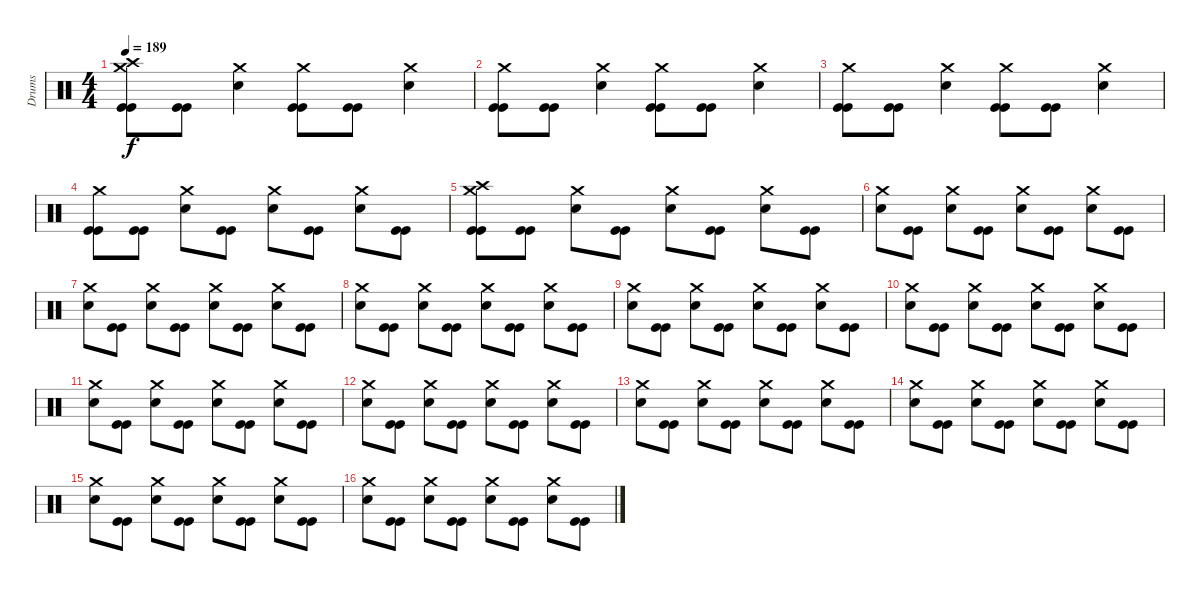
\track ("Drums" "Drums") {instrument percussion}
\staff {score}
\articulation defaults
\ts (4 4)
\tempo 189
\clef neutral
\ks c
("Crash high (hit)" "Crash medium (hit)" "Kick (hit)" "Kick (hit)").8{dy f} ("Kick (hit)" "Kick (hit)").8 ("Crash medium (hit)" "Electric Snare (hit)").4 ("Crash medium (hit)" "Kick (hit)" "Kick (hit)").8 ("Kick (hit)" "Kick (hit)").8 ("Crash medium (hit)" "Electric Snare (hit)").4 |
("Crash medium (hit)" "Kick (hit)" "Kick (hit)").8 ("Kick (hit)" "Kick (hit)").8 ("Crash medium (hit)" "Electric Snare (hit)").4 ("Crash medium (hit)" "Kick (hit)" "Kick (hit)").8 ("Kick (hit)" "Kick (hit)").8 ("Crash medium (hit)" "Electric Snare (hit)").4 |
("Crash medium (hit)" "Kick (hit)" "Kick (hit)").8 ("Kick (hit)" "Kick (hit)").8 ("Crash medium (hit)" "Electric Snare (hit)").4 ("Crash medium (hit)" "Kick (hit)" "Kick (hit)").8 ("Kick (hit)" "Kick (hit)").8 ("Crash medium (hit)" "Electric Snare (hit)").4 |
("Crash medium (hit)" "Kick (hit)" "Kick (hit)").8 ("Kick (hit)" "Kick (hit)").8 ("Crash medium (hit)" "Electric Snare (hit)").8 ("Kick (hit)" "Kick (hit)").8 ("Crash medium (hit)" "Electric Snare (hit)").8 ("Kick (hit)" "Kick (hit)").8 ("Crash medium (hit)" "Electric Snare (hit)").8 ("Kick (hit)" "Kick (hit)").8 |
("Crash high (hit)" "Crash medium (hit)" "Kick (hit)" "Kick (hit)").8 ("Kick (hit)" "Kick (hit)").8 ("Crash medium (hit)" "Electric Snare (hit)").8 ("Kick (hit)" "Kick (hit)").8 ("Crash medium (hit)" "Electric Snare (hit)").8 ("Kick (hit)" "Kick (hit)").8 ("Crash medium (hit)" "Electric Snare (hit)").8 ("Kick (hit)" "Kick (hit)").8 |
("Crash medium (hit)" "Electric Snare (hit)").8 ("Kick (hit)" "Kick (hit)").8 ("Crash medium (hit)" "Electric Snare (hit)").8 ("Kick (hit)" "Kick (hit)").8 ("Crash medium (hit)" "Electric Snare (hit)").8 ("Kick (hit)" "Kick (hit)").8 ("Crash medium (hit)" "Electric Snare (hit)").8 ("Kick (hit)" "Kick (hit)").8 |
("Crash medium (hit)" "Electric Snare (hit)").8 ("Kick (hit)" "Kick (hit)").8 ("Crash medium (hit)" "Electric Snare (hit)").8 ("Kick (hit)" "Kick (hit)").8 ("Crash medium (hit)" "Electric Snare (hit)").8 ("Kick (hit)" "Kick (hit)").8 ("Crash medium (hit)" "Electric Snare (hit)").8 ("Kick (hit)" "Kick (hit)").8 |
("Crash medium (hit)" "Electric Snare (hit)").8 ("Kick (hit)" "Kick (hit)").8 ("Crash medium (hit)" "Electric Snare (hit)").8 ("Kick (hit)" "Kick (hit)").8 ("Crash medium (hit)" "Electric Snare (hit)").8 ("Kick (hit)" "Kick (hit)").8 ("Crash medium (hit)" "Electric Snare (hit)").8 ("Kick (hit)" "Kick (hit)").8 |
("Crash medium (hit)" "Electric Snare (hit)").8 ("Kick (hit)" "Kick (hit)").8 ("Crash medium (hit)" "Electric Snare (hit)").8 ("Kick (hit)" "Kick (hit)").8 ("Crash medium (hit)" "Electric Snare (hit)").8 ("Kick (hit)" "Kick (hit)").8 ("Crash medium (hit)" "Electric Snare (hit)").8 ("Kick (hit)" "Kick (hit)").8 |
("Crash medium (hit)" "Electric Snare (hit)").8 ("Kick (hit)" "Kick (hit)").8 ("Crash medium (hit)" "Electric Snare (hit)").8 ("Kick (hit)" "Kick (hit)").8 ("Crash medium (hit)" "Electric Snare (hit)").8 ("Kick (hit)" "Kick (hit)").8 ("Crash medium (hit)" "Electric Snare (hit)").8 ("Kick (hit)" "Kick (hit)").8 |
("Crash medium (hit)" "Electric Snare (hit)").8 ("Kick (hit)" "Kick (hit)").8 ("Crash medium (hit)" "Electric Snare (hit)").8 ("Kick (hit)" "Kick (hit)").8 ("Crash medium (hit)" "Electric Snare (hit)").8 ("Kick (hit)" "Kick (hit)").8 ("Crash medium (hit)" "Electric Snare (hit)").8 ("Kick (hit)" "Kick (hit)").8 |
("Crash medium (hit)" "Electric Snare (hit)").8 ("Kick (hit)" "Kick (hit)").8 ("Crash medium (hit)" "Electric Snare (hit)").8 ("Kick (hit)" "Kick (hit)").8 ("Crash medium (hit)" "Electric Snare (hit)").8 ("Kick (hit)" "Kick (hit)").8 ("Crash medium (hit)" "Electric Snare (hit)").8 ("Kick (hit)" "Kick (hit)").8 |
("Crash medium (hit)" "Electric Snare (hit)").8 ("Kick (hit)" "Kick (hit)").8 ("Crash medium (hit)" "Electric Snare (hit)").8 ("Kick (hit)" "Kick (hit)").8 ("Crash medium (hit)" "Electric Snare (hit)").8 ("Kick (hit)" "Kick (hit)").8 ("Crash medium (hit)" "Electric Snare (hit)").8 ("Kick (hit)" "Kick (hit)").8 |
("Crash medium (hit)" "Electric Snare (hit)").8 ("Kick (hit)" "Kick (hit)").8 ("Crash medium (hit)" "Electric Snare (hit)").8 ("Kick (hit)" "Kick (hit)").8 ("Crash medium (hit)" "Electric Snare (hit)").8 ("Kick (hit)" "Kick (hit)").8 ("Crash medium (hit)" "Electric Snare (hit)").8 ("Kick (hit)" "Kick (hit)").8 |
("Crash medium (hit)" "Electric Snare (hit)").8 ("Kick (hit)" "Kick (hit)").8 ("Crash medium (hit)" "Electric Snare (hit)").8 ("Kick (hit)" "Kick (hit)").8 ("Crash medium (hit)" "Electric Snare (hit)").8 ("Kick (hit)" "Kick (hit)").8 ("Crash medium (hit)" "Electric Snare (hit)").8 ("Kick (hit)" "Kick (hit)").8 |
("Crash medium (hit)" "Electric Snare (hit)").8 ("Kick (hit)" "Kick (hit)").8 ("Crash medium (hit)" "Electric Snare (hit)").8 ("Kick (hit)" "Kick (hit)").8 ("Crash medium (hit)" "Electric Snare (hit)").8 ("Kick (hit)" "Kick (hit)").8 ("Crash medium (hit)" "Electric Snare (hit)").8 ("Kick (hit)" "Kick (hit)").8
